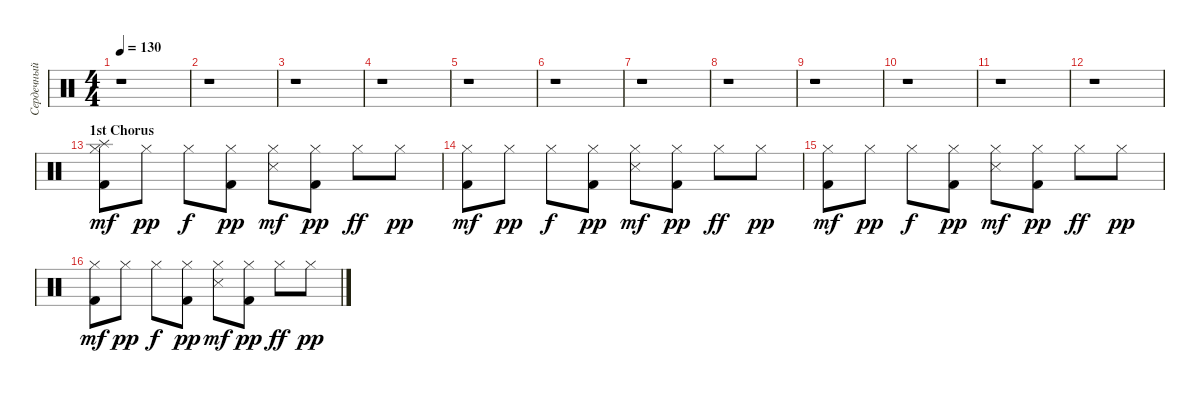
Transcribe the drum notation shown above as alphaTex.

\track ("Сердечный (Ударные)" "Сердечный ") {instrument percussion}
\staff {score}
\articulation defaults
\ts (4 4)
\tempo 130
\clef neutral
\ks c
r.1{dy mf} |
r.1 |
r.1 |
r.1 |
r.1 |
r.1 |
r.1 |
r.1 |
r.1 |
r.1 |
r.1 |
r.1 |
\section ("" "1st Chorus")
("Kick (hit) 2" "Hi-Hat (closed)" "Splash (hit)").8 "Hi-Hat (closed)".8{dy pp} "Hi-Hat (closed)".8{dy f} ("Kick (hit) 2" "Hi-Hat (closed)").8{dy pp} ("Snare (side stick) 3" "Hi-Hat (closed)").8{dy mf} ("Kick (hit) 2" "Hi-Hat (closed)").8{dy pp} "Hi-Hat (closed)".8{dy ff} "Hi-Hat (closed)".8{dy pp} |
("Kick (hit) 2" "Hi-Hat (closed)").8{dy mf} "Hi-Hat (closed)".8{dy pp} "Hi-Hat (closed)".8{dy f} ("Kick (hit) 2" "Hi-Hat (closed)").8{dy pp} ("Snare (side stick) 3" "Hi-Hat (closed)").8{dy mf} ("Kick (hit) 2" "Hi-Hat (closed)").8{dy pp} "Hi-Hat (closed)".8{dy ff} "Hi-Hat (closed)".8{dy pp} |
("Kick (hit) 2" "Hi-Hat (closed)").8{dy mf} "Hi-Hat (closed)".8{dy pp} "Hi-Hat (closed)".8{dy f} ("Kick (hit) 2" "Hi-Hat (closed)").8{dy pp} ("Snare (side stick) 3" "Hi-Hat (closed)").8{dy mf} ("Kick (hit) 2" "Hi-Hat (closed)").8{dy pp} "Hi-Hat (closed)".8{dy ff} "Hi-Hat (closed)".8{dy pp} |
("Kick (hit) 2" "Hi-Hat (closed)").8{dy mf} "Hi-Hat (closed)".8{dy pp} "Hi-Hat (closed)".8{dy f} ("Kick (hit) 2" "Hi-Hat (closed)").8{dy pp} ("Snare (side stick) 3" "Hi-Hat (closed)").8{dy mf} ("Kick (hit) 2" "Hi-Hat (closed)").8{dy pp} "Hi-Hat (closed)".8{dy ff} "Hi-Hat (closed)".8{dy pp}
